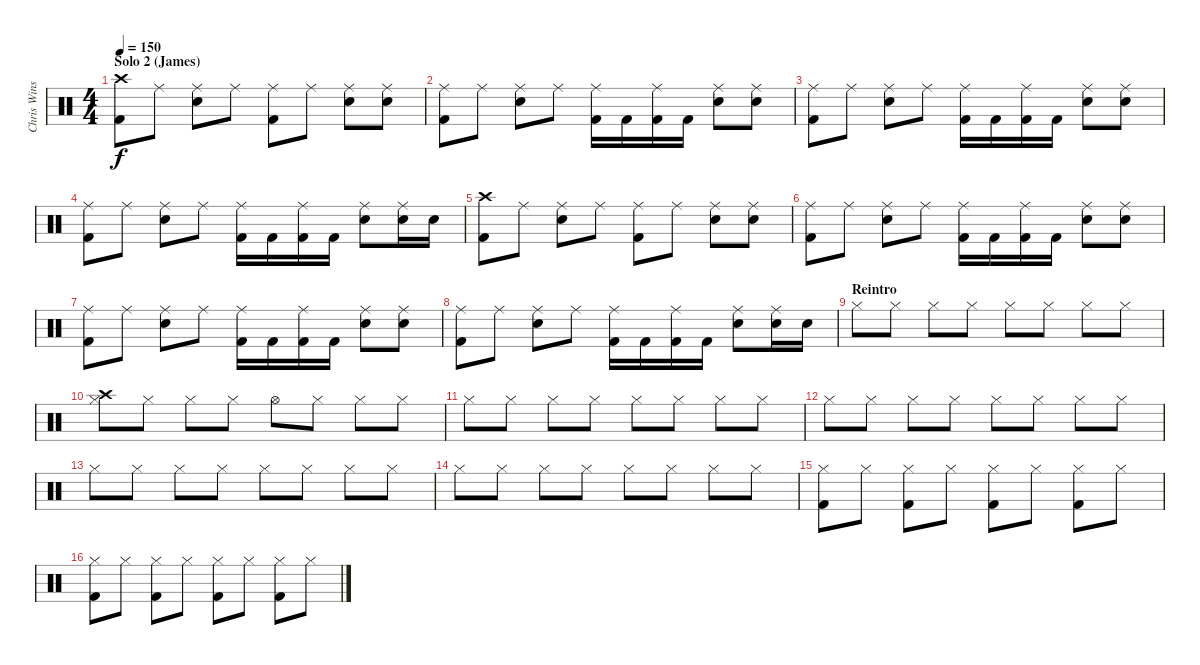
\track ("Chris Winship (Drums)" "Chris Wins") {instrument percussion}
\staff {score}
\articulation defaults
\ts (4 4)
\section ("" "Solo 2 (James)")
\tempo 150
\clef neutral
\ks c
("Crash high (hit)" "Kick (hit) 2").8{dy f} "Ride (middle)".8 ("Ride (middle)" "Electric Snare (hit)").8 "Ride (middle)".8 ("Ride (middle)" "Kick (hit) 2").8 "Ride (middle)".8 ("Ride (middle)" "Electric Snare (hit)").8 ("Ride (middle)" "Electric Snare (hit)").8 |
("Ride (middle)" "Kick (hit) 2").8 "Ride (middle)".8 ("Ride (middle)" "Electric Snare (hit)").8 "Ride (middle)".8 ("Ride (middle)" "Kick (hit) 2").16 "Kick (hit) 2".16 ("Ride (middle)" "Kick (hit) 2").16 "Kick (hit) 2".16 ("Ride (middle)" "Electric Snare (hit)").8 ("Ride (middle)" "Electric Snare (hit)").8 |
("Ride (middle)" "Kick (hit) 2").8 "Ride (middle)".8 ("Ride (middle)" "Electric Snare (hit)").8 "Ride (middle)".8 ("Ride (middle)" "Kick (hit) 2").16 "Kick (hit) 2".16 ("Ride (middle)" "Kick (hit) 2").16 "Kick (hit) 2".16 ("Ride (middle)" "Electric Snare (hit)").8 ("Ride (middle)" "Electric Snare (hit)").8 |
("Ride (middle)" "Kick (hit) 2").8 "Ride (middle)".8 ("Ride (middle)" "Electric Snare (hit)").8 "Ride (middle)".8 ("Ride (middle)" "Kick (hit) 2").16 "Kick (hit) 2".16 ("Ride (middle)" "Kick (hit) 2").16 "Kick (hit) 2".16 ("Ride (middle)" "Electric Snare (hit)").8 ("Ride (middle)" "Electric Snare (hit)").16 "Electric Snare (hit)".16 |
("Crash high (hit)" "Kick (hit) 2").8 "Ride (middle)".8 ("Ride (middle)" "Electric Snare (hit)").8 "Ride (middle)".8 ("Ride (middle)" "Kick (hit) 2").8 "Ride (middle)".8 ("Ride (middle)" "Electric Snare (hit)").8 ("Ride (middle)" "Electric Snare (hit)").8 |
("Ride (middle)" "Kick (hit) 2").8 "Ride (middle)".8 ("Ride (middle)" "Electric Snare (hit)").8 "Ride (middle)".8 ("Ride (middle)" "Kick (hit) 2").16 "Kick (hit) 2".16 ("Ride (middle)" "Kick (hit) 2").16 "Kick (hit) 2".16 ("Ride (middle)" "Electric Snare (hit)").8 ("Ride (middle)" "Electric Snare (hit)").8 |
("Ride (middle)" "Kick (hit) 2").8 "Ride (middle)".8 ("Ride (middle)" "Electric Snare (hit)").8 "Ride (middle)".8 ("Ride (middle)" "Kick (hit) 2").16 "Kick (hit) 2".16 ("Ride (middle)" "Kick (hit) 2").16 "Kick (hit) 2".16 ("Ride (middle)" "Electric Snare (hit)").8 ("Ride (middle)" "Electric Snare (hit)").8 |
("Ride (middle)" "Kick (hit) 2").8 "Ride (middle)".8 ("Ride (middle)" "Electric Snare (hit)").8 "Ride (middle)".8 ("Ride (middle)" "Kick (hit) 2").16 "Kick (hit) 2".16 ("Ride (middle)" "Kick (hit) 2").16 "Kick (hit) 2".16 ("Ride (middle)" "Electric Snare (hit)").8 ("Ride (middle)" "Electric Snare (hit)").16 "Electric Snare (hit)".16 |
\section ("" "Reintro")
"Hi-Hat (closed)".8 "Hi-Hat (closed)".8 "Hi-Hat (closed)".8 "Hi-Hat (closed)".8 "Hi-Hat (closed)".8 "Hi-Hat (closed)".8 "Hi-Hat (closed)".8 "Hi-Hat (closed)".8 |
("Crash high (hit)" "Hi-Hat (closed)").8 "Hi-Hat (closed)".8 "Hi-Hat (closed)".8 "Hi-Hat (closed)".8 "Hi-Hat (open)".8 "Hi-Hat (closed)".8 "Hi-Hat (closed)".8 "Hi-Hat (closed)".8 |
"Hi-Hat (closed)".8 "Hi-Hat (closed)".8 "Hi-Hat (closed)".8 "Hi-Hat (closed)".8 "Hi-Hat (closed)".8 "Hi-Hat (closed)".8 "Hi-Hat (closed)".8 "Hi-Hat (closed)".8 |
"Hi-Hat (closed)".8 "Hi-Hat (closed)".8 "Hi-Hat (closed)".8 "Hi-Hat (closed)".8 "Hi-Hat (closed)".8 "Hi-Hat (closed)".8 "Hi-Hat (closed)".8 "Hi-Hat (closed)".8 |
"Hi-Hat (closed)".8 "Hi-Hat (closed)".8 "Hi-Hat (closed)".8 "Hi-Hat (closed)".8 "Hi-Hat (closed)".8 "Hi-Hat (closed)".8 "Hi-Hat (closed)".8 "Hi-Hat (closed)".8 |
"Hi-Hat (closed)".8 "Hi-Hat (closed)".8 "Hi-Hat (closed)".8 "Hi-Hat (closed)".8 "Hi-Hat (closed)".8 "Hi-Hat (closed)".8 "Hi-Hat (closed)".8 "Hi-Hat (closed)".8 |
("Hi-Hat (closed)" "Kick (hit) 2").8 "Hi-Hat (closed)".8 ("Hi-Hat (closed)" "Kick (hit) 2").8 "Hi-Hat (closed)".8 ("Hi-Hat (closed)" "Kick (hit) 2").8 "Hi-Hat (closed)".8 ("Hi-Hat (closed)" "Kick (hit) 2").8 "Hi-Hat (closed)".8 |
("Hi-Hat (closed)" "Kick (hit) 2").8 "Hi-Hat (closed)".8 ("Hi-Hat (closed)" "Kick (hit) 2").8 "Hi-Hat (closed)".8 ("Hi-Hat (closed)" "Kick (hit) 2").8 "Hi-Hat (closed)".8 ("Hi-Hat (closed)" "Kick (hit) 2").8 "Hi-Hat (closed)".8
